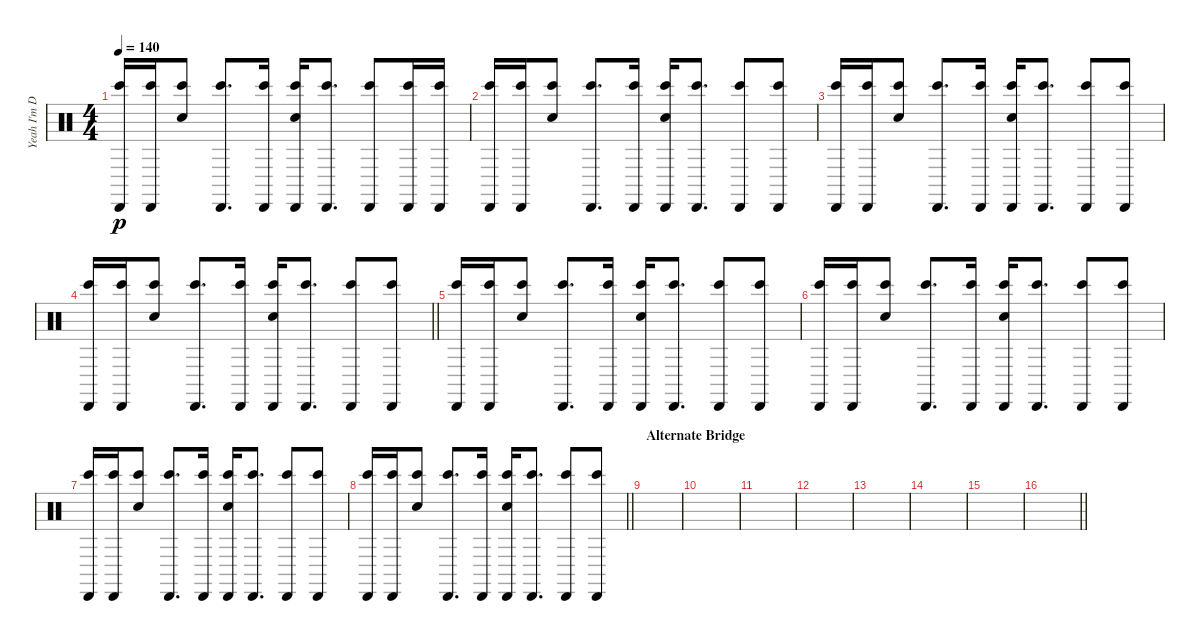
\track ("Yeah I'm Doing Too Much..." "Yeah I'm D") {instrument percussion}
\staff {score}
\articulation defaults
\ts (4 4)
\tempo 140
\clef neutral
\ks c
("Bongo High (hit)" "Cabasa (hit)").16{dy p} ("Bongo High (hit)" "Cabasa (hit)").16 ("Bongo High (hit)" "Hand Clap (hit)").8 ("Bongo High (hit)" "Cabasa (hit)").8{d} ("Bongo High (hit)" "Cabasa (hit)").16 ("Bongo High (hit)" "Cabasa (hit)" "Hand Clap (hit)").16 ("Bongo High (hit)" "Cabasa (hit)").8{d} ("Bongo High (hit)" "Cabasa (hit)").8 ("Bongo High (hit)" "Cabasa (hit)").16 ("Bongo High (hit)" "Cabasa (hit)").16 |
("Bongo High (hit)" "Cabasa (hit)").16 ("Bongo High (hit)" "Cabasa (hit)").16 ("Bongo High (hit)" "Hand Clap (hit)").8 ("Bongo High (hit)" "Cabasa (hit)").8{d} ("Bongo High (hit)" "Cabasa (hit)").16 ("Bongo High (hit)" "Cabasa (hit)" "Hand Clap (hit)").16 ("Bongo High (hit)" "Cabasa (hit)").8{d} ("Bongo High (hit)" "Cabasa (hit)").8 ("Bongo High (hit)" "Cabasa (hit)").8 |
("Bongo High (hit)" "Cabasa (hit)").16 ("Bongo High (hit)" "Cabasa (hit)").16 ("Bongo High (hit)" "Hand Clap (hit)").8 ("Bongo High (hit)" "Cabasa (hit)").8{d} ("Bongo High (hit)" "Cabasa (hit)").16 ("Bongo High (hit)" "Cabasa (hit)" "Hand Clap (hit)").16 ("Bongo High (hit)" "Cabasa (hit)").8{d} ("Bongo High (hit)" "Cabasa (hit)").8 ("Bongo High (hit)" "Cabasa (hit)").8 |
\barLineRight lightlight
("Bongo High (hit)" "Cabasa (hit)").16 ("Bongo High (hit)" "Cabasa (hit)").16 ("Bongo High (hit)" "Hand Clap (hit)").8 ("Bongo High (hit)" "Cabasa (hit)").8{d} ("Bongo High (hit)" "Cabasa (hit)").16 ("Bongo High (hit)" "Cabasa (hit)" "Hand Clap (hit)").16 ("Bongo High (hit)" "Cabasa (hit)").8{d} ("Bongo High (hit)" "Cabasa (hit)").8 ("Bongo High (hit)" "Cabasa (hit)").8 |
("Bongo High (hit)" "Cabasa (hit)").16 ("Bongo High (hit)" "Cabasa (hit)").16 ("Bongo High (hit)" "Hand Clap (hit)").8 ("Bongo High (hit)" "Cabasa (hit)").8{d} ("Bongo High (hit)" "Cabasa (hit)").16 ("Bongo High (hit)" "Cabasa (hit)" "Hand Clap (hit)").16 ("Bongo High (hit)" "Cabasa (hit)").8{d} ("Bongo High (hit)" "Cabasa (hit)").8 ("Bongo High (hit)" "Cabasa (hit)").8 |
("Bongo High (hit)" "Cabasa (hit)").16 ("Bongo High (hit)" "Cabasa (hit)").16 ("Bongo High (hit)" "Hand Clap (hit)").8 ("Bongo High (hit)" "Cabasa (hit)").8{d} ("Bongo High (hit)" "Cabasa (hit)").16 ("Bongo High (hit)" "Cabasa (hit)" "Hand Clap (hit)").16 ("Bongo High (hit)" "Cabasa (hit)").8{d} ("Bongo High (hit)" "Cabasa (hit)").8 ("Bongo High (hit)" "Cabasa (hit)").8 |
("Bongo High (hit)" "Cabasa (hit)").16 ("Bongo High (hit)" "Cabasa (hit)").16 ("Bongo High (hit)" "Hand Clap (hit)").8 ("Bongo High (hit)" "Cabasa (hit)").8{d} ("Bongo High (hit)" "Cabasa (hit)").16 ("Bongo High (hit)" "Cabasa (hit)" "Hand Clap (hit)").16 ("Bongo High (hit)" "Cabasa (hit)").8{d} ("Bongo High (hit)" "Cabasa (hit)").8 ("Bongo High (hit)" "Cabasa (hit)").8 |
\barLineRight lightlight
("Bongo High (hit)" "Cabasa (hit)").16 ("Bongo High (hit)" "Cabasa (hit)").16 ("Bongo High (hit)" "Hand Clap (hit)").8 ("Bongo High (hit)" "Cabasa (hit)").8{d} ("Bongo High (hit)" "Cabasa (hit)").16 ("Bongo High (hit)" "Cabasa (hit)" "Hand Clap (hit)").16 ("Bongo High (hit)" "Cabasa (hit)").8{d} ("Bongo High (hit)" "Cabasa (hit)").8 ("Bongo High (hit)" "Cabasa (hit)").8 |
\section ("" "Alternate Bridge")
|
|
|
|
|
|
|
\barLineRight lightlight
